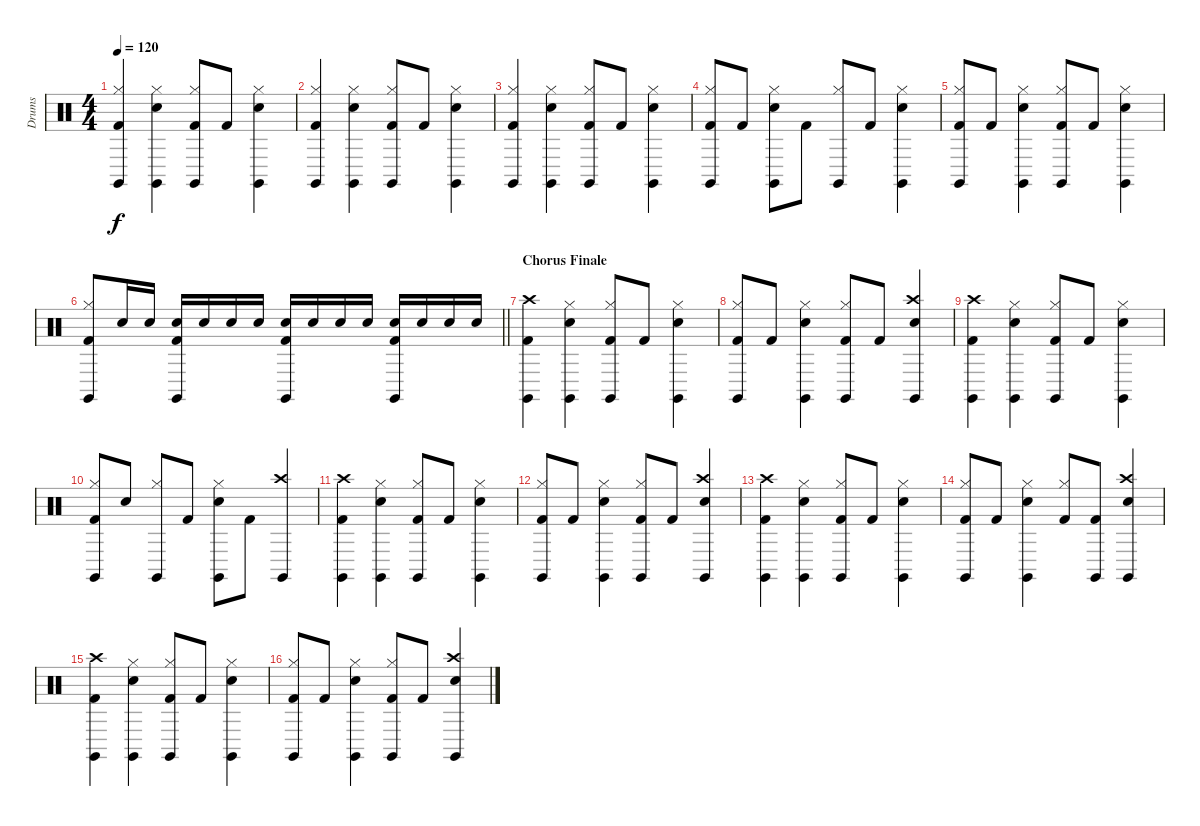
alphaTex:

\track ("Drums" "Drums") {instrument percussion}
\staff {score}
\articulation defaults
\ts (4 4)
\tempo 120
\clef neutral
\ks c
("Hi-Hat (closed)" "Kick (hit) 2" "Claves (hit)").4{dy f} ("Hi-Hat (closed)" "Snare (hit) 2" "Claves (hit)").4 ("Hi-Hat (closed)" "Kick (hit) 2" "Claves (hit)").8 "Kick (hit) 2".8 ("Hi-Hat (closed)" "Snare (hit) 2" "Claves (hit)").4 |
("Hi-Hat (closed)" "Kick (hit) 2" "Claves (hit)").4 ("Hi-Hat (closed)" "Snare (hit) 2" "Claves (hit)").4 ("Hi-Hat (closed)" "Kick (hit) 2" "Claves (hit)").8 "Kick (hit) 2".8 ("Hi-Hat (closed)" "Snare (hit) 2" "Claves (hit)").4 |
("Hi-Hat (closed)" "Kick (hit) 2" "Claves (hit)").4 ("Hi-Hat (closed)" "Snare (hit) 2" "Claves (hit)").4 ("Hi-Hat (closed)" "Kick (hit) 2" "Claves (hit)").8 "Kick (hit) 2".8 ("Hi-Hat (closed)" "Snare (hit) 2" "Claves (hit)").4 |
("Hi-Hat (closed)" "Kick (hit) 2" "Claves (hit)").8 "Kick (hit) 2".8 ("Hi-Hat (closed)" "Snare (hit) 2" "Claves (hit)").8 "Kick (hit) 2".8 ("Hi-Hat (closed)" "Claves (hit)").8 "Kick (hit) 2".8 ("Hi-Hat (closed)" "Snare (hit) 2" "Claves (hit)").4 |
("Hi-Hat (closed)" "Kick (hit) 2" "Claves (hit)").8 "Kick (hit) 2".8 ("Hi-Hat (closed)" "Snare (hit) 2" "Claves (hit)").4 ("Hi-Hat (closed)" "Kick (hit) 2" "Claves (hit)").8 "Kick (hit) 2".8 ("Hi-Hat (closed)" "Snare (hit) 2" "Claves (hit)").4 |
\barLineRight lightlight
("Hi-Hat (closed)" "Kick (hit) 2" "Claves (hit)").8 "Snare (hit) 2".16 "Snare (hit) 2".16 ("Snare (hit) 2" "Kick (hit) 2" "Claves (hit)").16 "Snare (hit) 2".16 "Snare (hit) 2".16 "Snare (hit) 2".16 ("Snare (hit) 2" "Kick (hit) 2" "Claves (hit)").16 "Snare (hit) 2".16 "Snare (hit) 2".16 "Snare (hit) 2".16 ("Snare (hit) 2" "Kick (hit) 2" "Claves (hit)").16 "Snare (hit) 2".16 "Snare (hit) 2".16 "Snare (hit) 2".16 |
\section ("" "Chorus Finale")
("Crash high (hit)" "Kick (hit) 2" "Claves (hit)").4 ("Hi-Hat (closed)" "Snare (hit) 2" "Claves (hit)").4 ("Hi-Hat (closed)" "Kick (hit) 2" "Claves (hit)").8 "Kick (hit) 2".8 ("Hi-Hat (closed)" "Snare (hit) 2" "Claves (hit)").4 |
("Hi-Hat (closed)" "Kick (hit) 2" "Claves (hit)").8 "Kick (hit) 2".8 ("Hi-Hat (closed)" "Snare (hit) 2" "Claves (hit)").4 ("Hi-Hat (closed)" "Kick (hit) 2" "Claves (hit)").8 "Kick (hit) 2".8 ("Crash high (hit)" "Snare (hit) 2" "Claves (hit)").4 |
("Crash high (hit)" "Kick (hit) 2" "Claves (hit)").4 ("Hi-Hat (closed)" "Snare (hit) 2" "Claves (hit)").4 ("Hi-Hat (closed)" "Kick (hit) 2" "Claves (hit)").8 "Kick (hit) 2".8 ("Hi-Hat (closed)" "Snare (hit) 2" "Claves (hit)").4 |
("Hi-Hat (closed)" "Kick (hit) 2" "Claves (hit)").8 "Snare (hit) 2".8 ("Hi-Hat (closed)" "Claves (hit)").8 "Kick (hit) 2".8 ("Hi-Hat (closed)" "Snare (hit) 2" "Claves (hit)").8 "Kick (hit) 2".8 ("Crash high (hit)" "Claves (hit)").4 |
("Crash high (hit)" "Kick (hit) 2" "Claves (hit)").4 ("Hi-Hat (closed)" "Snare (hit) 2" "Claves (hit)").4 ("Hi-Hat (closed)" "Kick (hit) 2" "Claves (hit)").8 "Kick (hit) 2".8 ("Hi-Hat (closed)" "Snare (hit) 2" "Claves (hit)").4 |
("Hi-Hat (closed)" "Kick (hit) 2" "Claves (hit)").8 "Kick (hit) 2".8 ("Hi-Hat (closed)" "Snare (hit) 2" "Claves (hit)").4 ("Hi-Hat (closed)" "Kick (hit) 2" "Claves (hit)").8 "Kick (hit) 2".8 ("Crash high (hit)" "Snare (hit) 2" "Claves (hit)").4 |
("Crash high (hit)" "Kick (hit) 2" "Claves (hit)").4 ("Hi-Hat (closed)" "Snare (hit) 2" "Claves (hit)").4 ("Hi-Hat (closed)" "Kick (hit) 2" "Claves (hit)").8 "Kick (hit) 2".8 ("Hi-Hat (closed)" "Snare (hit) 2" "Claves (hit)").4 |
("Hi-Hat (closed)" "Kick (hit) 2" "Claves (hit)").8 "Kick (hit) 2".8 ("Hi-Hat (closed)" "Snare (hit) 2" "Claves (hit)").4 ("Hi-Hat (closed)" "Kick (hit) 2").8 ("Kick (hit) 2" "Claves (hit)").8 ("Crash high (hit)" "Snare (hit) 2" "Claves (hit)").4 |
("Crash high (hit)" "Kick (hit) 2" "Claves (hit)").4 ("Hi-Hat (closed)" "Snare (hit) 2" "Claves (hit)").4 ("Hi-Hat (closed)" "Kick (hit) 2" "Claves (hit)").8 "Kick (hit) 2".8 ("Hi-Hat (closed)" "Snare (hit) 2" "Claves (hit)").4 |
("Hi-Hat (closed)" "Kick (hit) 2" "Claves (hit)").8 "Kick (hit) 2".8 ("Hi-Hat (closed)" "Snare (hit) 2" "Claves (hit)").4 ("Hi-Hat (closed)" "Kick (hit) 2" "Claves (hit)").8 "Kick (hit) 2".8 ("Crash high (hit)" "Snare (hit) 2" "Claves (hit)").4
